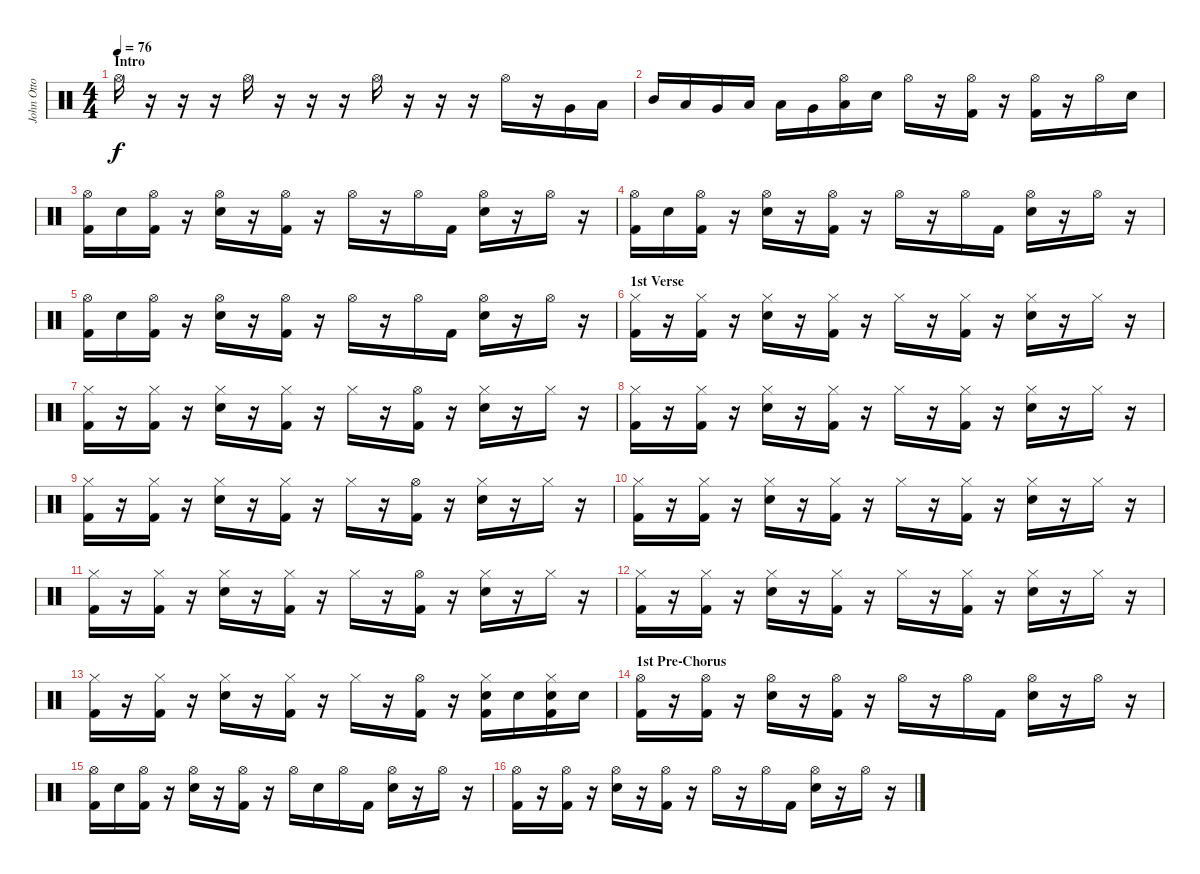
\track ("John Otto" "John Otto") {instrument percussion}
\staff {score}
\articulation defaults
\ts (4 4)
\section ("" "Intro")
\tempo 76
\clef neutral
\ks c "Hi-Hat (open)".16{dy f}
r.16 r.16 r.16 "Hi-Hat (open)".16 r.16 r.16 r.16 "Hi-Hat (open)".16 r.16 r.16 r.16 "Hi-Hat (open)".16 r.16 "Very Low Tom (hit)".16 "Low Tom (hit)".16 |
"Mid Tom (hit)".16 "Low Tom (hit)".16 "Very Low Tom (hit)".16 "Low Tom (hit)".16 "Low Tom (hit)".16 "Very Low Tom (hit)".16 ("Hi-Hat (open)" "Low Floor Tom (hit)").16 "Snare (hit) 2".16 "Hi-Hat (open)".16 r.16 ("Hi-Hat (open)" "Kick (hit) 2").16 r.16 ("Hi-Hat (open)" "Kick (hit) 2").16 r.16 "Hi-Hat (open)".16 "Snare (hit) 2".16 |
("Hi-Hat (open)" "Kick (hit) 2").16 "Snare (hit) 2".16 ("Hi-Hat (open)" "Kick (hit) 2").16 r.16 ("Hi-Hat (open)" "Snare (hit) 2").16 r.16 ("Hi-Hat (open)" "Kick (hit) 2").16 r.16 "Hi-Hat (open)".16 r.16 "Hi-Hat (open)".16 "Kick (hit) 2".16 ("Hi-Hat (open)" "Snare (hit) 2").16 r.16 "Hi-Hat (open)".16 r.16 |
("Hi-Hat (open)" "Kick (hit) 2").16 "Snare (hit) 2".16 ("Hi-Hat (open)" "Kick (hit) 2").16 r.16 ("Hi-Hat (open)" "Snare (hit) 2").16 r.16 ("Hi-Hat (open)" "Kick (hit) 2").16 r.16 "Hi-Hat (open)".16 r.16 "Hi-Hat (open)".16 "Kick (hit) 2".16 ("Hi-Hat (open)" "Snare (hit) 2").16 r.16 "Hi-Hat (open)".16 r.16 |
("Hi-Hat (open)" "Kick (hit) 2").16 "Snare (hit) 2".16 ("Hi-Hat (open)" "Kick (hit) 2").16 r.16 ("Hi-Hat (open)" "Snare (hit) 2").16 r.16 ("Hi-Hat (open)" "Kick (hit) 2").16 r.16 "Hi-Hat (open)".16 r.16 "Hi-Hat (open)".16 "Kick (hit) 2".16 ("Hi-Hat (open)" "Snare (hit) 2").16 r.16 "Hi-Hat (open)".16 r.16 |
\section ("" "1st Verse")
("Hi-Hat (closed)" "Kick (hit) 2").16 r.16 ("Hi-Hat (closed)" "Kick (hit) 2").16 r.16 ("Hi-Hat (closed)" "Snare (hit) 2").16 r.16 ("Hi-Hat (closed)" "Kick (hit) 2").16 r.16 "Hi-Hat (closed)".16 r.16 ("Hi-Hat (closed)" "Kick (hit) 2").16 r.16 ("Hi-Hat (closed)" "Snare (hit) 2").16 r.16 "Hi-Hat (closed)".16 r.16 |
("Hi-Hat (closed)" "Kick (hit) 2").16 r.16 ("Hi-Hat (closed)" "Kick (hit) 2").16 r.16 ("Hi-Hat (closed)" "Snare (hit) 2").16 r.16 ("Hi-Hat (closed)" "Kick (hit) 2").16 r.16 "Hi-Hat (closed)".16 r.16 ("Hi-Hat (open)" "Kick (hit) 2").16 r.16 ("Hi-Hat (closed)" "Snare (hit) 2").16 r.16 "Hi-Hat (closed)".16 r.16 |
("Hi-Hat (closed)" "Kick (hit) 2").16 r.16 ("Hi-Hat (closed)" "Kick (hit) 2").16 r.16 ("Hi-Hat (closed)" "Snare (hit) 2").16 r.16 ("Hi-Hat (closed)" "Kick (hit) 2").16 r.16 "Hi-Hat (closed)".16 r.16 ("Hi-Hat (closed)" "Kick (hit) 2").16 r.16 ("Hi-Hat (closed)" "Snare (hit) 2").16 r.16 "Hi-Hat (closed)".16 r.16 |
("Hi-Hat (closed)" "Kick (hit) 2").16 r.16 ("Hi-Hat (closed)" "Kick (hit) 2").16 r.16 ("Hi-Hat (closed)" "Snare (hit) 2").16 r.16 ("Hi-Hat (closed)" "Kick (hit) 2").16 r.16 "Hi-Hat (closed)".16 r.16 ("Hi-Hat (open)" "Kick (hit) 2").16 r.16 ("Hi-Hat (closed)" "Snare (hit) 2").16 r.16 "Hi-Hat (closed)".16 r.16 |
("Hi-Hat (closed)" "Kick (hit) 2").16 r.16 ("Hi-Hat (closed)" "Kick (hit) 2").16 r.16 ("Hi-Hat (closed)" "Snare (hit) 2").16 r.16 ("Hi-Hat (closed)" "Kick (hit) 2").16 r.16 "Hi-Hat (closed)".16 r.16 ("Hi-Hat (closed)" "Kick (hit) 2").16 r.16 ("Hi-Hat (closed)" "Snare (hit) 2").16 r.16 "Hi-Hat (closed)".16 r.16 |
("Hi-Hat (closed)" "Kick (hit) 2").16 r.16 ("Hi-Hat (closed)" "Kick (hit) 2").16 r.16 ("Hi-Hat (closed)" "Snare (hit) 2").16 r.16 ("Hi-Hat (closed)" "Kick (hit) 2").16 r.16 "Hi-Hat (closed)".16 r.16 ("Hi-Hat (open)" "Kick (hit) 2").16 r.16 ("Hi-Hat (closed)" "Snare (hit) 2").16 r.16 "Hi-Hat (closed)".16 r.16 |
("Hi-Hat (closed)" "Kick (hit) 2").16 r.16 ("Hi-Hat (closed)" "Kick (hit) 2").16 r.16 ("Hi-Hat (closed)" "Snare (hit) 2").16 r.16 ("Hi-Hat (closed)" "Kick (hit) 2").16 r.16 "Hi-Hat (closed)".16 r.16 ("Hi-Hat (closed)" "Kick (hit) 2").16 r.16 ("Hi-Hat (closed)" "Snare (hit) 2").16 r.16 "Hi-Hat (closed)".16 r.16 |
("Hi-Hat (closed)" "Kick (hit) 2").16 r.16 ("Hi-Hat (closed)" "Kick (hit) 2").16 r.16 ("Hi-Hat (closed)" "Snare (hit) 2").16 r.16 ("Hi-Hat (closed)" "Kick (hit) 2").16 r.16 "Hi-Hat (closed)".16 r.16 ("Hi-Hat (open)" "Kick (hit) 2").16 r.16 ("Hi-Hat (closed)" "Electric Snare (hit)" "Kick (hit) 2").16 "Electric Snare (hit)".16 ("Hi-Hat (closed)" "Snare (hit) 2" "Kick (hit) 2").16 "Snare (hit) 2".16 |
\section ("" "1st Pre-Chorus")
("Hi-Hat (open)" "Kick (hit) 2").16 r.16 ("Hi-Hat (open)" "Kick (hit) 2").16 r.16 ("Hi-Hat (open)" "Snare (hit) 2").16 r.16 ("Hi-Hat (open)" "Kick (hit) 2").16 r.16 "Hi-Hat (open)".16 r.16 "Hi-Hat (open)".16 "Kick (hit) 2".16 ("Hi-Hat (open)" "Snare (hit) 2").16 r.16 "Hi-Hat (open)".16 r.16 |
("Hi-Hat (open)" "Kick (hit) 2").16 "Snare (hit) 2".16 ("Hi-Hat (open)" "Kick (hit) 2").16 r.16 ("Hi-Hat (open)" "Snare (hit) 2").16 r.16 ("Hi-Hat (open)" "Kick (hit) 2").16 r.16 "Hi-Hat (open)".16 "Snare (hit) 2".16 "Hi-Hat (open)".16 "Kick (hit) 2".16 ("Hi-Hat (open)" "Snare (hit) 2").16 r.16 "Hi-Hat (open)".16 r.16 |
("Hi-Hat (open)" "Kick (hit) 2").16 r.16 ("Hi-Hat (open)" "Kick (hit) 2").16 r.16 ("Hi-Hat (open)" "Snare (hit) 2").16 r.16 ("Hi-Hat (open)" "Kick (hit) 2").16 r.16 "Hi-Hat (open)".16 r.16 "Hi-Hat (open)".16 "Kick (hit) 2".16 ("Hi-Hat (open)" "Snare (hit) 2").16 r.16 "Hi-Hat (open)".16 r.16
